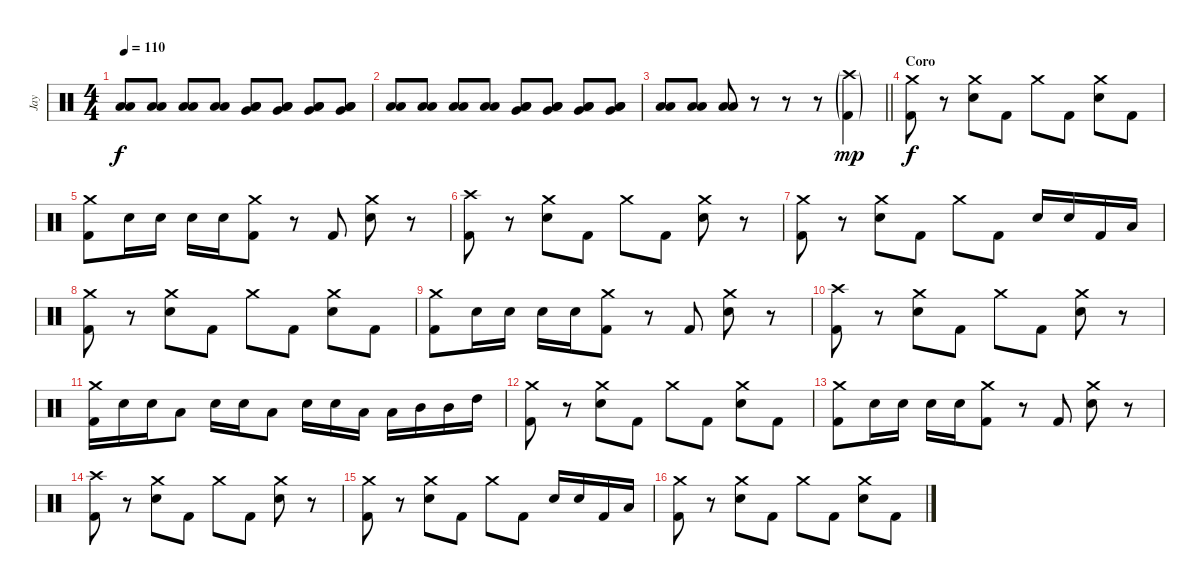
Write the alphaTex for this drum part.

\track ("Jay" "Jay") {instrument percussion}
\staff {score}
\articulation defaults
\ts (4 4)
\tempo 110
\clef neutral
\ks c
("Low Tom (hit)" "Low Tom (hit)").8{dy f} ("Low Tom (hit)" "Low Tom (hit)").8 ("Low Tom (hit)" "Low Tom (hit)").8 ("Low Tom (hit)" "Low Tom (hit)").8 ("Low Tom (hit)" "Low Tom (hit)" "Very Low Tom (hit)").8 ("Low Tom (hit)" "Low Tom (hit)" "Very Low Tom (hit)").8 ("Low Tom (hit)" "Low Tom (hit)" "Very Low Tom (hit)").8 ("Low Tom (hit)" "Low Tom (hit)" "Very Low Tom (hit)").8 |
("Low Tom (hit)" "Low Tom (hit)").8 ("Low Tom (hit)" "Low Tom (hit)").8 ("Low Tom (hit)" "Low Tom (hit)").8 ("Low Tom (hit)" "Low Tom (hit)").8 ("Low Tom (hit)" "Low Tom (hit)" "Very Low Tom (hit)").8 ("Low Tom (hit)" "Low Tom (hit)" "Very Low Tom (hit)").8 ("Low Tom (hit)" "Low Tom (hit)" "Very Low Tom (hit)").8 ("Low Tom (hit)" "Low Tom (hit)" "Very Low Tom (hit)").8 |
\barLineRight lightlight
("Low Tom (hit)" "Low Tom (hit)").8 ("Low Tom (hit)" "Low Tom (hit)").8 ("Low Tom (hit)" "Low Tom (hit)").8 r.8 r.8 r.8 ("Crash high (hit)"{g} "Kick (hit) 2"{g}).4{dy mp} |
\section ("" "Coro")
("Crash medium (hit)" "Kick (hit) 2").8{dy f} r.8 ("Crash medium (hit)" "Electric Snare (hit)").8 "Kick (hit) 2".8 "Crash medium (hit)".8 "Kick (hit) 2".8 ("Crash medium (hit)" "Electric Snare (hit)").8 "Kick (hit) 2".8 |
("Crash medium (hit)" "Kick (hit) 2").8 "Electric Snare (hit)".16 "Electric Snare (hit)".16 "Electric Snare (hit)".16 "Electric Snare (hit)".16 ("Crash medium (hit)" "Kick (hit) 2").8 r.8 "Kick (hit) 2".8 ("Crash medium (hit)" "Electric Snare (hit)").8 r.8 |
("Crash high (hit)" "Kick (hit) 2").8 r.8 ("Crash medium (hit)" "Electric Snare (hit)").8 "Kick (hit) 2".8 "Crash medium (hit)".8 "Kick (hit) 2".8 ("Crash medium (hit)" "Electric Snare (hit)").8 r.8 |
("Crash medium (hit)" "Kick (hit) 2").8 r.8 ("Crash medium (hit)" "Electric Snare (hit)").8 "Kick (hit) 2".8 "Crash medium (hit)".8 "Kick (hit) 2".8 "Electric Snare (hit)".16 "Electric Snare (hit)".16 "Kick (hit) 2".16 "Low Tom (hit)".16 |
("Crash medium (hit)" "Kick (hit) 2").8 r.8 ("Crash medium (hit)" "Electric Snare (hit)").8 "Kick (hit) 2".8 "Crash medium (hit)".8 "Kick (hit) 2".8 ("Crash medium (hit)" "Electric Snare (hit)").8 "Kick (hit) 2".8 |
("Crash medium (hit)" "Kick (hit) 2").8 "Electric Snare (hit)".16 "Electric Snare (hit)".16 "Electric Snare (hit)".16 "Electric Snare (hit)".16 ("Crash medium (hit)" "Kick (hit) 2").8 r.8 "Kick (hit) 2".8 ("Crash medium (hit)" "Electric Snare (hit)").8 r.8 |
("Crash high (hit)" "Kick (hit) 2").8 r.8 ("Crash medium (hit)" "Electric Snare (hit)").8 "Kick (hit) 2".8 "Crash medium (hit)".8 "Kick (hit) 2".8 ("Crash medium (hit)" "Electric Snare (hit)").8 r.8 |
("Crash medium (hit)" "Kick (hit) 2").16 "Electric Snare (hit)".16 "Electric Snare (hit)".16 "Low Tom (hit)".8 "Electric Snare (hit)".16 "Electric Snare (hit)".16 "Low Tom (hit)".8 "Electric Snare (hit)".16 "Electric Snare (hit)".16 "Low Tom (hit)".16 "Low Tom (hit)".16 "Mid Tom (hit)".16 "Mid Tom (hit)".16 "High Tom (hit)".16 |
("Crash medium (hit)" "Kick (hit) 2").8 r.8 ("Crash medium (hit)" "Electric Snare (hit)").8 "Kick (hit) 2".8 "Crash medium (hit)".8 "Kick (hit) 2".8 ("Crash medium (hit)" "Electric Snare (hit)").8 "Kick (hit) 2".8 |
("Crash medium (hit)" "Kick (hit) 2").8 "Electric Snare (hit)".16 "Electric Snare (hit)".16 "Electric Snare (hit)".16 "Electric Snare (hit)".16 ("Crash medium (hit)" "Kick (hit) 2").8 r.8 "Kick (hit) 2".8 ("Crash medium (hit)" "Electric Snare (hit)").8 r.8 |
("Crash high (hit)" "Kick (hit) 2").8 r.8 ("Crash medium (hit)" "Electric Snare (hit)").8 "Kick (hit) 2".8 "Crash medium (hit)".8 "Kick (hit) 2".8 ("Crash medium (hit)" "Electric Snare (hit)").8 r.8 |
("Crash medium (hit)" "Kick (hit) 2").8 r.8 ("Crash medium (hit)" "Electric Snare (hit)").8 "Kick (hit) 2".8 "Crash medium (hit)".8 "Kick (hit) 2".8 "Electric Snare (hit)".16 "Electric Snare (hit)".16 "Kick (hit) 2".16 "Low Tom (hit)".16 |
("Crash medium (hit)" "Kick (hit) 2").8 r.8 ("Crash medium (hit)" "Electric Snare (hit)").8 "Kick (hit) 2".8 "Crash medium (hit)".8 "Kick (hit) 2".8 ("Crash medium (hit)" "Electric Snare (hit)").8 "Kick (hit) 2".8
